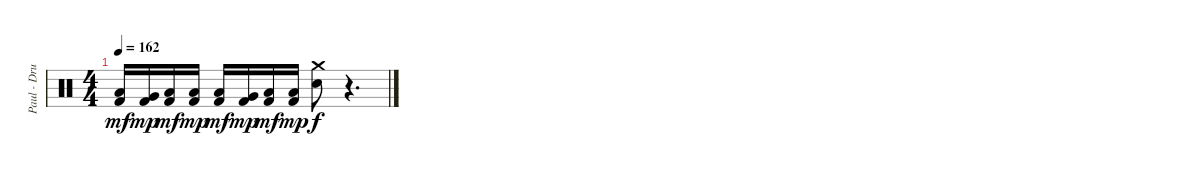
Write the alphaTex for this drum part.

\track ("Paul - Drums" "Paul - Dru") {instrument percussion}
\staff {score}
\articulation defaults
\ts (4 4)
\tempo 162
\clef neutral
\ks c
("Low Tom (hit)" "Kick (hit) 2").16{dy mf} ("Very Low Tom (hit)" "Kick (hit) 2").16{dy mp} ("Low Floor Tom (hit)" "Kick (hit) 2").16{dy mf} ("Low Floor Tom (hit)" "Kick (hit) 2").16{dy mp} ("Low Tom (hit)" "Kick (hit) 2").16{dy mf} ("Very Low Tom (hit)" "Kick (hit) 2").16{dy mp} ("Low Floor Tom (hit)" "Kick (hit) 2").16{dy mf} ("Low Floor Tom (hit)" "Kick (hit) 2").16{dy mp} ("Crash medium (hit)" "Electric Snare (hit)").8{dy f} r.4{d volume 0}
